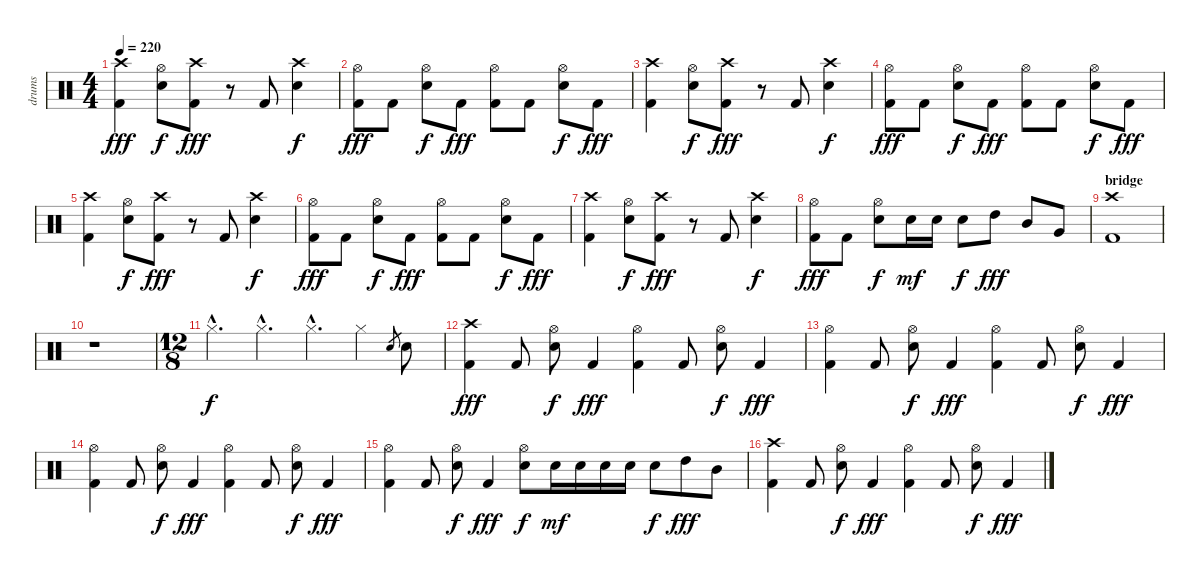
\track ("drums" "drums") {instrument percussion}
\staff {score}
\articulation defaults
\ts (4 4)
\tempo 220
\clef neutral
\ks c
("Crash high (hit)" "Kick (hit) 2").4{dy fff} ("Hi-Hat (open)" "Snare (hit) 2").8{dy f} ("Crash high (hit)" "Kick (hit) 2").8{dy fff} r.8 "Kick (hit) 2".8 ("Crash high (hit)" "Snare (hit) 2").4{dy f} |
("Hi-Hat (open)" "Kick (hit) 2").8{dy fff} "Kick (hit) 2".8 ("Hi-Hat (open)" "Snare (hit) 2").8{dy f} "Kick (hit) 2".8{dy fff} ("Hi-Hat (open)" "Kick (hit) 2").8 "Kick (hit) 2".8 ("Hi-Hat (open)" "Snare (hit) 2").8{dy f} "Kick (hit) 2".8{dy fff} |
("Crash high (hit)" "Kick (hit) 2").4 ("Hi-Hat (open)" "Snare (hit) 2").8{dy f} ("Crash high (hit)" "Kick (hit) 2").8{dy fff} r.8 "Kick (hit) 2".8 ("Crash high (hit)" "Snare (hit) 2").4{dy f} |
("Hi-Hat (open)" "Kick (hit) 2").8{dy fff} "Kick (hit) 2".8 ("Hi-Hat (open)" "Snare (hit) 2").8{dy f} "Kick (hit) 2".8{dy fff} ("Hi-Hat (open)" "Kick (hit) 2").8 "Kick (hit) 2".8 ("Hi-Hat (open)" "Snare (hit) 2").8{dy f} "Kick (hit) 2".8{dy fff} |
("Crash high (hit)" "Kick (hit) 2").4 ("Hi-Hat (open)" "Snare (hit) 2").8{dy f} ("Crash high (hit)" "Kick (hit) 2").8{dy fff} r.8 "Kick (hit) 2".8 ("Crash high (hit)" "Snare (hit) 2").4{dy f} |
("Hi-Hat (open)" "Kick (hit) 2").8{dy fff} "Kick (hit) 2".8 ("Hi-Hat (open)" "Snare (hit) 2").8{dy f} "Kick (hit) 2".8{dy fff} ("Hi-Hat (open)" "Kick (hit) 2").8 "Kick (hit) 2".8 ("Hi-Hat (open)" "Snare (hit) 2").8{dy f} "Kick (hit) 2".8{dy fff} |
("Crash high (hit)" "Kick (hit) 2").4 ("Hi-Hat (open)" "Snare (hit) 2").8{dy f} ("Crash high (hit)" "Kick (hit) 2").8{dy fff} r.8 "Kick (hit) 2".8 ("Crash high (hit)" "Snare (hit) 2").4{dy f} |
("Hi-Hat (open)" "Kick (hit) 2").8{dy fff} "Kick (hit) 2".8 ("Hi-Hat (open)" "Snare (hit) 2").8{dy f} "Snare (hit) 2".16{dy mf} "Snare (hit) 2".16 "Snare (hit) 2".8{dy f} "High Tom (hit)".8{dy fff} "Mid Tom (hit)".8 "Very Low Tom (hit)".8 |
\section ("" "bridge")
("Crash high (hit)" "Kick (hit) 2").1 |
r.1 |
\ts (12 8)
"Hi-Hat (closed)"{hac}.4{d dy f} "Hi-Hat (closed)"{hac}.4{d} "Hi-Hat (closed)"{hac}.4{d} "Hi-Hat (closed)".4 "Snare (hit) 2".8{gr} "Snare (hit) 2".8 |
("Crash high (hit)" "Kick (hit) 2").4{dy fff} "Kick (hit) 2".8 ("Hi-Hat (open)" "Snare (hit) 2").8{dy f} "Kick (hit) 2".4{dy fff} ("Hi-Hat (open)" "Kick (hit) 2").4 "Kick (hit) 2".8 ("Hi-Hat (open)" "Snare (hit) 2").8{dy f} "Kick (hit) 2".4{dy fff} |
("Hi-Hat (open)" "Kick (hit) 2").4 "Kick (hit) 2".8 ("Hi-Hat (open)" "Snare (hit) 2").8{dy f} "Kick (hit) 2".4{dy fff} ("Hi-Hat (open)" "Kick (hit) 2").4 "Kick (hit) 2".8 ("Hi-Hat (open)" "Snare (hit) 2").8{dy f} "Kick (hit) 2".4{dy fff} |
("Hi-Hat (open)" "Kick (hit) 2").4 "Kick (hit) 2".8 ("Hi-Hat (open)" "Snare (hit) 2").8{dy f} "Kick (hit) 2".4{dy fff} ("Hi-Hat (open)" "Kick (hit) 2").4 "Kick (hit) 2".8 ("Hi-Hat (open)" "Snare (hit) 2").8{dy f} "Kick (hit) 2".4{dy fff} |
("Hi-Hat (open)" "Kick (hit) 2").4 "Kick (hit) 2".8 ("Hi-Hat (open)" "Snare (hit) 2").8{dy f} "Kick (hit) 2".4{dy fff} ("Hi-Hat (open)" "Snare (hit) 2").8{dy f} "Snare (hit) 2".16{dy mf} "Snare (hit) 2".16 "Snare (hit) 2".16 "Snare (hit) 2".16 "Snare (hit) 2".8{dy f} "High Tom (hit)".8{dy fff} "Mid Tom (hit)".8 |
("Crash high (hit)" "Kick (hit) 2").4 "Kick (hit) 2".8 ("Hi-Hat (open)" "Snare (hit) 2").8{dy f} "Kick (hit) 2".4{dy fff} ("Hi-Hat (open)" "Kick (hit) 2").4 "Kick (hit) 2".8 ("Hi-Hat (open)" "Snare (hit) 2").8{dy f} "Kick (hit) 2".4{dy fff}
